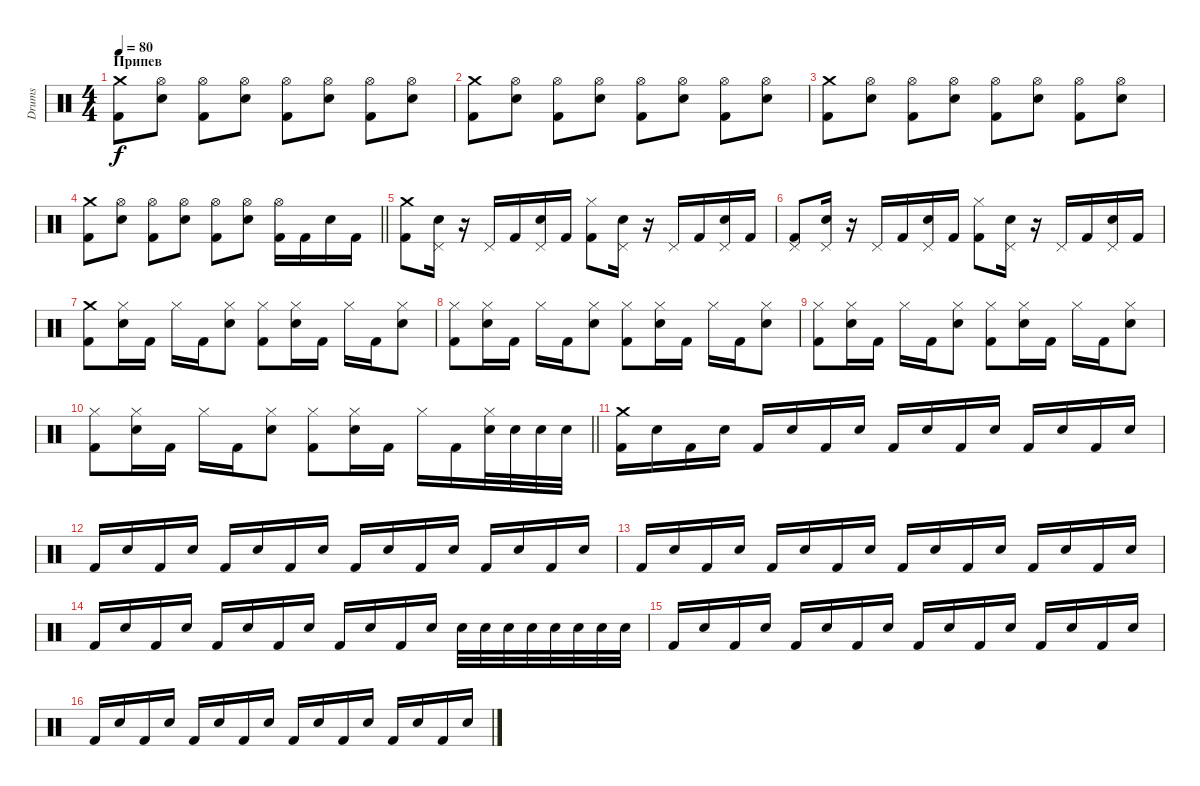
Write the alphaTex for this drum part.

\track ("Drums" "Drums") {instrument percussion}
\staff {score}
\articulation defaults
\ts (4 4)
\section ("" "Припев")
\tempo 80
\clef neutral
\ks c
("Crash medium (hit)" "Kick (hit) 2").8{dy f} ("Hi-Hat (open)" "Snare (hit) 2").8 ("Hi-Hat (open)" "Kick (hit) 2").8 ("Hi-Hat (open)" "Snare (hit) 2").8 ("Hi-Hat (open)" "Kick (hit) 2").8 ("Hi-Hat (open)" "Snare (hit) 2").8 ("Hi-Hat (open)" "Kick (hit) 2").8 ("Hi-Hat (open)" "Snare (hit) 2").8 |
("Crash medium (hit)" "Kick (hit) 2").8 ("Hi-Hat (open)" "Snare (hit) 2").8 ("Hi-Hat (open)" "Kick (hit) 2").8 ("Hi-Hat (open)" "Snare (hit) 2").8 ("Hi-Hat (open)" "Kick (hit) 2").8 ("Hi-Hat (open)" "Snare (hit) 2").8 ("Hi-Hat (open)" "Kick (hit) 2").8 ("Hi-Hat (open)" "Snare (hit) 2").8 |
("Crash medium (hit)" "Kick (hit) 2").8 ("Hi-Hat (open)" "Snare (hit) 2").8 ("Hi-Hat (open)" "Kick (hit) 2").8 ("Hi-Hat (open)" "Snare (hit) 2").8 ("Hi-Hat (open)" "Kick (hit) 2").8 ("Hi-Hat (open)" "Snare (hit) 2").8 ("Hi-Hat (open)" "Kick (hit) 2").8 ("Hi-Hat (open)" "Snare (hit) 2").8 |
\barLineRight lightlight
("Crash medium (hit)" "Kick (hit) 2").8 ("Hi-Hat (open)" "Snare (hit) 2").8 ("Hi-Hat (open)" "Kick (hit) 2").8 ("Hi-Hat (open)" "Snare (hit) 2").8 ("Hi-Hat (open)" "Kick (hit) 2").8 ("Hi-Hat (open)" "Snare (hit) 2").8 ("Hi-Hat (open)" "Kick (hit) 2").16 "Kick (hit) 2".16 "Snare (hit) 2".16 "Kick (hit) 2".16 |
("Crash medium (hit)" "Kick (hit) 2").8 ("Pedal Hi-Hat (hit)" "Snare (hit) 2").16 r.16 "Pedal Hi-Hat (hit)".16 "Kick (hit) 2".16 ("Pedal Hi-Hat (hit)" "Snare (hit) 2").16 "Kick (hit) 2".16 ("Hi-Hat (closed)" "Kick (hit) 2").8 ("Pedal Hi-Hat (hit)" "Snare (hit) 2").16 r.16 "Pedal Hi-Hat (hit)".16 "Kick (hit) 2".16 ("Pedal Hi-Hat (hit)" "Snare (hit) 2").16 "Kick (hit) 2".16 |
("Pedal Hi-Hat (hit)" "Kick (hit) 2").8 ("Pedal Hi-Hat (hit)" "Snare (hit) 2").16 r.16 "Pedal Hi-Hat (hit)".16 "Kick (hit) 2".16 ("Pedal Hi-Hat (hit)" "Snare (hit) 2").16 "Kick (hit) 2".16 ("Hi-Hat (closed)" "Kick (hit) 2").8 ("Pedal Hi-Hat (hit)" "Snare (hit) 2").16 r.16 "Pedal Hi-Hat (hit)".16 "Kick (hit) 2".16 ("Pedal Hi-Hat (hit)" "Snare (hit) 2").16 "Kick (hit) 2".16 |
("Crash medium (hit)" "Kick (hit) 2").8 ("Hi-Hat (closed)" "Snare (hit) 2").16 "Kick (hit) 2".16 "Hi-Hat (closed)".16 "Kick (hit) 2".16 ("Hi-Hat (closed)" "Snare (hit) 2").8 ("Hi-Hat (closed)" "Kick (hit) 2").8 ("Hi-Hat (closed)" "Snare (hit) 2").16 "Kick (hit) 2".16 "Hi-Hat (closed)".16 "Kick (hit) 2".16 ("Hi-Hat (closed)" "Snare (hit) 2").8 |
("Hi-Hat (closed)" "Kick (hit) 2").8 ("Hi-Hat (closed)" "Snare (hit) 2").16 "Kick (hit) 2".16 "Hi-Hat (closed)".16 "Kick (hit) 2".16 ("Hi-Hat (closed)" "Snare (hit) 2").8 ("Hi-Hat (closed)" "Kick (hit) 2").8 ("Hi-Hat (closed)" "Snare (hit) 2").16 "Kick (hit) 2".16 "Hi-Hat (closed)".16 "Kick (hit) 2".16 ("Hi-Hat (closed)" "Snare (hit) 2").8 |
("Hi-Hat (closed)" "Kick (hit) 2").8 ("Hi-Hat (closed)" "Snare (hit) 2").16 "Kick (hit) 2".16 "Hi-Hat (closed)".16 "Kick (hit) 2".16 ("Hi-Hat (closed)" "Snare (hit) 2").8 ("Hi-Hat (closed)" "Kick (hit) 2").8 ("Hi-Hat (closed)" "Snare (hit) 2").16 "Kick (hit) 2".16 "Hi-Hat (closed)".16 "Kick (hit) 2".16 ("Hi-Hat (closed)" "Snare (hit) 2").8 |
\barLineRight lightlight
("Hi-Hat (closed)" "Kick (hit) 2").8 ("Hi-Hat (closed)" "Snare (hit) 2").16 "Kick (hit) 2".16 "Hi-Hat (closed)".16 "Kick (hit) 2".16 ("Hi-Hat (closed)" "Snare (hit) 2").8 ("Hi-Hat (closed)" "Kick (hit) 2").8 ("Hi-Hat (closed)" "Snare (hit) 2").16 "Kick (hit) 2".16 "Hi-Hat (closed)".16 "Kick (hit) 2".16 ("Hi-Hat (closed)" "Snare (hit) 2").32 "Snare (hit) 2".32 "Snare (hit) 2".32 "Snare (hit) 2".32 |
("Crash medium (hit)" "Kick (hit) 2").16 "Snare (hit) 2".16 "Kick (hit) 2".16 "Snare (hit) 2".16 "Kick (hit) 2".16 "Snare (hit) 2".16 "Kick (hit) 2".16 "Snare (hit) 2".16 "Kick (hit) 2".16 "Snare (hit) 2".16 "Kick (hit) 2".16 "Snare (hit) 2".16 "Kick (hit) 2".16 "Snare (hit) 2".16 "Kick (hit) 2".16 "Snare (hit) 2".16 |
"Kick (hit) 2".16 "Snare (hit) 2".16 "Kick (hit) 2".16 "Snare (hit) 2".16 "Kick (hit) 2".16 "Snare (hit) 2".16 "Kick (hit) 2".16 "Snare (hit) 2".16 "Kick (hit) 2".16 "Snare (hit) 2".16 "Kick (hit) 2".16 "Snare (hit) 2".16 "Kick (hit) 2".16 "Snare (hit) 2".16 "Kick (hit) 2".16 "Snare (hit) 2".16 |
"Kick (hit) 2".16 "Snare (hit) 2".16 "Kick (hit) 2".16 "Snare (hit) 2".16 "Kick (hit) 2".16 "Snare (hit) 2".16 "Kick (hit) 2".16 "Snare (hit) 2".16 "Kick (hit) 2".16 "Snare (hit) 2".16 "Kick (hit) 2".16 "Snare (hit) 2".16 "Kick (hit) 2".16 "Snare (hit) 2".16 "Kick (hit) 2".16 "Snare (hit) 2".16 |
"Kick (hit) 2".16 "Snare (hit) 2".16 "Kick (hit) 2".16 "Snare (hit) 2".16 "Kick (hit) 2".16 "Snare (hit) 2".16 "Kick (hit) 2".16 "Snare (hit) 2".16 "Kick (hit) 2".16 "Snare (hit) 2".16 "Kick (hit) 2".16 "Snare (hit) 2".16 "Snare (hit) 2".32 "Snare (hit) 2".32 "Snare (hit) 2".32 "Snare (hit) 2".32 "Snare (hit) 2".32 "Snare (hit) 2".32 "Snare (hit) 2".32 "Snare (hit) 2".32 |
"Kick (hit) 2".16 "Snare (hit) 2".16 "Kick (hit) 2".16 "Snare (hit) 2".16 "Kick (hit) 2".16 "Snare (hit) 2".16 "Kick (hit) 2".16 "Snare (hit) 2".16 "Kick (hit) 2".16 "Snare (hit) 2".16 "Kick (hit) 2".16 "Snare (hit) 2".16 "Kick (hit) 2".16 "Snare (hit) 2".16 "Kick (hit) 2".16 "Snare (hit) 2".16 |
"Kick (hit) 2".16 "Snare (hit) 2".16 "Kick (hit) 2".16 "Snare (hit) 2".16 "Kick (hit) 2".16 "Snare (hit) 2".16 "Kick (hit) 2".16 "Snare (hit) 2".16 "Kick (hit) 2".16 "Snare (hit) 2".16 "Kick (hit) 2".16 "Snare (hit) 2".16 "Kick (hit) 2".16 "Snare (hit) 2".16 "Kick (hit) 2".16 "Snare (hit) 2".16
